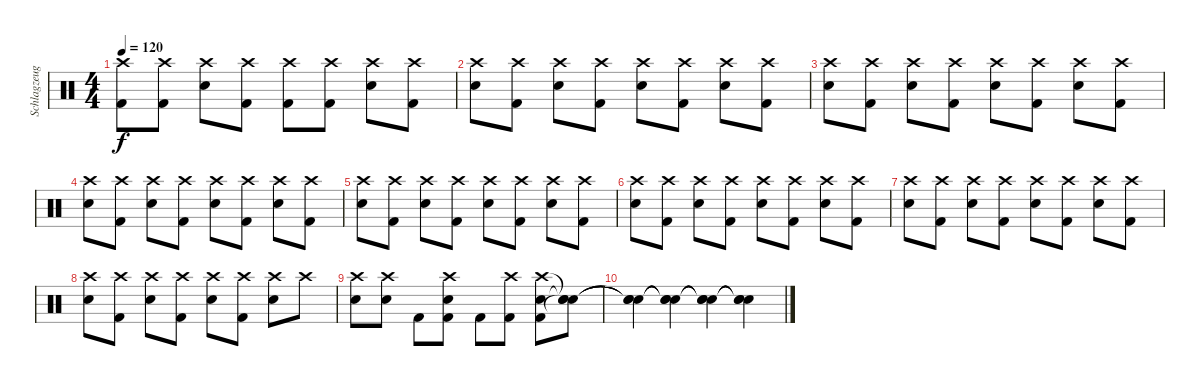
\track ("Schlagzeug[Gustav Schäfer]" "Schlagzeug") {instrument percussion}
\staff {score}
\articulation defaults
\ts (4 4)
\tempo 120
\clef neutral
\ks c
("Crash high (hit)" "Kick (hit) 2").8{dy f} ("Crash high (hit)" "Kick (hit) 2").8 ("Snare (hit) 2" "Crash high (hit)").8 ("Crash high (hit)" "Kick (hit) 2").8 ("Kick (hit) 2" "Crash high (hit)").8 ("Crash high (hit)" "Kick (hit) 2").8 ("Snare (hit) 2" "Crash high (hit)").8 ("Crash high (hit)" "Kick (hit) 2").8 |
("Crash high (hit)" "Snare (hit) 2").8 ("Crash high (hit)" "Kick (hit) 2").8 ("Crash high (hit)" "Snare (hit) 2").8 ("Crash high (hit)" "Kick (hit) 2").8 ("Crash high (hit)" "Snare (hit) 2").8 ("Crash high (hit)" "Kick (hit) 2").8 ("Crash high (hit)" "Snare (hit) 2").8 ("Crash high (hit)" "Kick (hit) 2").8 |
("Crash high (hit)" "Snare (hit) 2").8 ("Crash high (hit)" "Kick (hit) 2").8 ("Crash high (hit)" "Snare (hit) 2").8 ("Crash high (hit)" "Kick (hit) 2").8 ("Crash high (hit)" "Snare (hit) 2").8 ("Crash high (hit)" "Kick (hit) 2").8 ("Crash high (hit)" "Snare (hit) 2").8 ("Crash high (hit)" "Kick (hit) 2").8 |
("Crash high (hit)" "Snare (hit) 2").8 ("Crash high (hit)" "Kick (hit) 2").8 ("Crash high (hit)" "Snare (hit) 2").8 ("Crash high (hit)" "Kick (hit) 2").8 ("Crash high (hit)" "Snare (hit) 2").8 ("Crash high (hit)" "Kick (hit) 2").8 ("Crash high (hit)" "Snare (hit) 2").8 ("Crash high (hit)" "Kick (hit) 2").8 |
("Crash high (hit)" "Snare (hit) 2").8 ("Crash high (hit)" "Kick (hit) 2").8 ("Crash high (hit)" "Snare (hit) 2").8 ("Crash high (hit)" "Kick (hit) 2").8 ("Crash high (hit)" "Snare (hit) 2").8 ("Crash high (hit)" "Kick (hit) 2").8 ("Crash high (hit)" "Snare (hit) 2").8 ("Crash high (hit)" "Kick (hit) 2").8 |
("Crash high (hit)" "Snare (hit) 2").8 ("Crash high (hit)" "Kick (hit) 2").8 ("Crash high (hit)" "Snare (hit) 2").8 ("Crash high (hit)" "Kick (hit) 2").8 ("Crash high (hit)" "Snare (hit) 2").8 ("Crash high (hit)" "Kick (hit) 2").8 ("Crash high (hit)" "Snare (hit) 2").8 ("Crash high (hit)" "Kick (hit) 2").8 |
("Crash high (hit)" "Snare (hit) 2").8 ("Crash high (hit)" "Kick (hit) 2").8 ("Crash high (hit)" "Snare (hit) 2").8 ("Crash high (hit)" "Kick (hit) 2").8 ("Crash high (hit)" "Snare (hit) 2").8 ("Crash high (hit)" "Kick (hit) 2").8 ("Crash high (hit)" "Snare (hit) 2").8 ("Crash high (hit)" "Kick (hit) 2").8 |
("Crash high (hit)" "Snare (hit) 2").8 ("Crash high (hit)" "Kick (hit) 2").8 ("Crash high (hit)" "Snare (hit) 2").8 ("Crash high (hit)" "Kick (hit) 2").8 ("Crash high (hit)" "Snare (hit) 2").8 ("Crash high (hit)" "Kick (hit) 2").8 ("Snare (hit) 2" "Crash high (hit)").8 "Crash high (hit)".8 |
("Snare (hit) 2" "Crash high (hit)").8 ("Snare (hit) 2" "Crash high (hit)").8 "Kick (hit) 2".8 ("Kick (hit) 2" "Snare (hit) 2" "Crash high (hit)").8 "Kick (hit) 2".8 ("Kick (hit) 2" "Crash high (hit)").8 ("Kick (hit) 2" "Snare (hit) 2" "Crash high (hit)").8 ("Snare (hit)"{t} "Snare (hit)"{t} "Snare (hit)"{t}).8 |
("Snare (hit)"{t} "Snare (hit)"{t} "Snare (hit)"{t}).4 ("Snare (hit)"{t} "Snare (hit)"{t} "Snare (hit)"{t}).4 ("Snare (hit)"{t} "Snare (hit)"{t} "Snare (hit)"{t}).4 ("Snare (hit)"{t} "Snare (hit)"{t} "Snare (hit)"{t}).4
